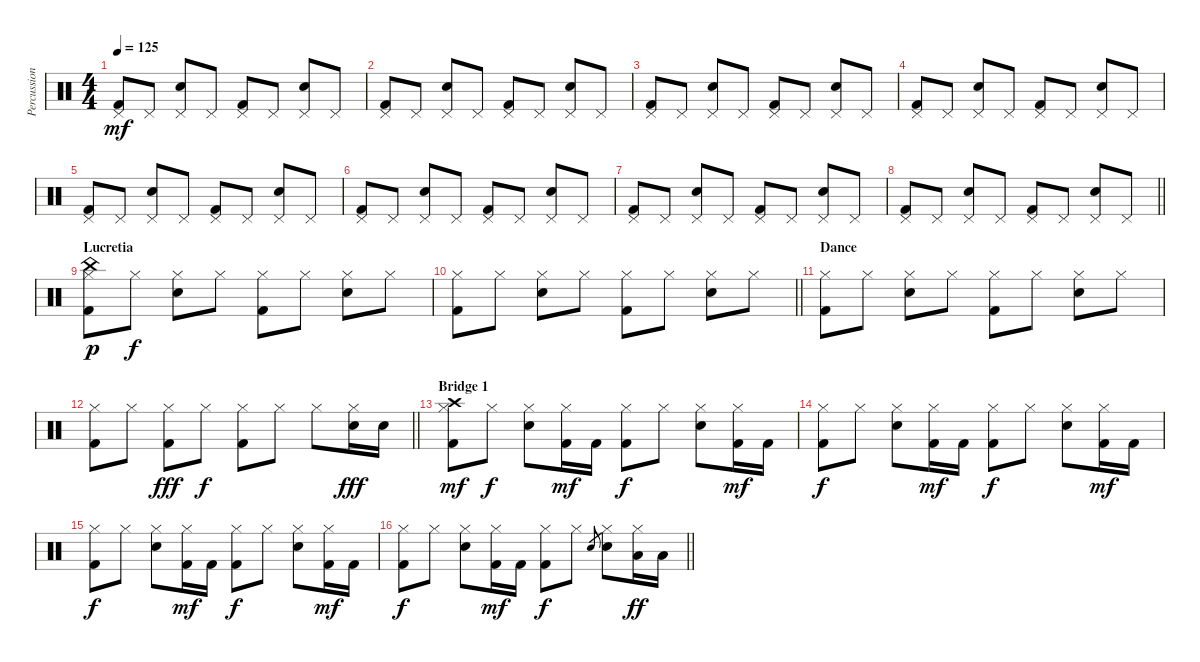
\track ("Percussion" "Percussion") {instrument percussion}
\staff {score}
\articulation defaults
\ts (4 4)
\tempo 125
\clef neutral
\ks c
("Pedal Hi-Hat (hit)" "Kick (hit) 2").8{dy mf} "Pedal Hi-Hat (hit)".8 ("Pedal Hi-Hat (hit)" "Electric Snare (hit)").8 "Pedal Hi-Hat (hit)".8 ("Pedal Hi-Hat (hit)" "Kick (hit) 2").8 "Pedal Hi-Hat (hit)".8 ("Pedal Hi-Hat (hit)" "Electric Snare (hit)").8 "Pedal Hi-Hat (hit)".8 |
("Pedal Hi-Hat (hit)" "Kick (hit) 2").8 "Pedal Hi-Hat (hit)".8 ("Pedal Hi-Hat (hit)" "Electric Snare (hit)").8 "Pedal Hi-Hat (hit)".8 ("Pedal Hi-Hat (hit)" "Kick (hit) 2").8 "Pedal Hi-Hat (hit)".8 ("Pedal Hi-Hat (hit)" "Electric Snare (hit)").8 "Pedal Hi-Hat (hit)".8 |
("Pedal Hi-Hat (hit)" "Kick (hit) 2").8 "Pedal Hi-Hat (hit)".8 ("Pedal Hi-Hat (hit)" "Electric Snare (hit)").8 "Pedal Hi-Hat (hit)".8 ("Pedal Hi-Hat (hit)" "Kick (hit) 2").8 "Pedal Hi-Hat (hit)".8 ("Pedal Hi-Hat (hit)" "Electric Snare (hit)").8 "Pedal Hi-Hat (hit)".8 |
("Pedal Hi-Hat (hit)" "Kick (hit) 2").8 "Pedal Hi-Hat (hit)".8 ("Pedal Hi-Hat (hit)" "Electric Snare (hit)").8 "Pedal Hi-Hat (hit)".8 ("Pedal Hi-Hat (hit)" "Kick (hit) 2").8 "Pedal Hi-Hat (hit)".8 ("Pedal Hi-Hat (hit)" "Electric Snare (hit)").8 "Pedal Hi-Hat (hit)".8 |
("Pedal Hi-Hat (hit)" "Kick (hit) 2").8 "Pedal Hi-Hat (hit)".8 ("Pedal Hi-Hat (hit)" "Electric Snare (hit)").8 "Pedal Hi-Hat (hit)".8 ("Pedal Hi-Hat (hit)" "Kick (hit) 2").8 "Pedal Hi-Hat (hit)".8 ("Pedal Hi-Hat (hit)" "Electric Snare (hit)").8 "Pedal Hi-Hat (hit)".8 |
("Pedal Hi-Hat (hit)" "Kick (hit) 2").8 "Pedal Hi-Hat (hit)".8 ("Pedal Hi-Hat (hit)" "Electric Snare (hit)").8 "Pedal Hi-Hat (hit)".8 ("Pedal Hi-Hat (hit)" "Kick (hit) 2").8 "Pedal Hi-Hat (hit)".8 ("Pedal Hi-Hat (hit)" "Electric Snare (hit)").8 "Pedal Hi-Hat (hit)".8 |
("Pedal Hi-Hat (hit)" "Kick (hit) 2").8 "Pedal Hi-Hat (hit)".8 ("Pedal Hi-Hat (hit)" "Electric Snare (hit)").8 "Pedal Hi-Hat (hit)".8 ("Pedal Hi-Hat (hit)" "Kick (hit) 2").8 "Pedal Hi-Hat (hit)".8 ("Pedal Hi-Hat (hit)" "Electric Snare (hit)").8 "Pedal Hi-Hat (hit)".8 |
\barLineRight lightlight
("Pedal Hi-Hat (hit)" "Kick (hit) 2").8 "Pedal Hi-Hat (hit)".8 ("Pedal Hi-Hat (hit)" "Electric Snare (hit)").8 "Pedal Hi-Hat (hit)".8 ("Pedal Hi-Hat (hit)" "Kick (hit) 2").8 "Pedal Hi-Hat (hit)".8 ("Pedal Hi-Hat (hit)" "Electric Snare (hit)").8 "Pedal Hi-Hat (hit)".8 |
\section ("" "Lucretia")
("Hi-Hat (closed)" "Kick (hit) 2" "China (hit)").8{dy p} "Hi-Hat (closed)".8{dy f} ("Hi-Hat (closed)" "Electric Snare (hit)").8 "Hi-Hat (closed)".8 ("Hi-Hat (closed)" "Kick (hit) 2").8 "Hi-Hat (closed)".8 ("Hi-Hat (closed)" "Electric Snare (hit)").8 "Hi-Hat (closed)".8 |
\barLineRight lightlight
("Hi-Hat (closed)" "Kick (hit) 2").8 "Hi-Hat (closed)".8 ("Hi-Hat (closed)" "Electric Snare (hit)").8 "Hi-Hat (closed)".8 ("Hi-Hat (closed)" "Kick (hit) 2").8 "Hi-Hat (closed)".8 ("Hi-Hat (closed)" "Electric Snare (hit)").8 "Hi-Hat (closed)".8 |
\section ("" "Dance")
("Hi-Hat (closed)" "Kick (hit) 2").8 "Hi-Hat (closed)".8 ("Hi-Hat (closed)" "Electric Snare (hit)").8 "Hi-Hat (closed)".8 ("Hi-Hat (closed)" "Kick (hit) 2").8 "Hi-Hat (closed)".8 ("Hi-Hat (closed)" "Electric Snare (hit)").8 "Hi-Hat (closed)".8 |
\barLineRight lightlight
("Hi-Hat (closed)" "Kick (hit) 2").8 "Hi-Hat (closed)".8 ("Hi-Hat (closed)" "Kick (hit) 2").8{dy fff} "Hi-Hat (closed)".8{dy f} ("Hi-Hat (closed)" "Kick (hit) 2").8 "Hi-Hat (closed)".8 "Hi-Hat (closed)".8 ("Hi-Hat (closed)" "Electric Snare (hit)").16{dy fff} "Electric Snare (hit)".16 |
\section ("" "Bridge 1")
("Hi-Hat (closed)" "Kick (hit) 2" "Crash high (hit)").8{dy mf} "Hi-Hat (closed)".8{dy f} ("Hi-Hat (closed)" "Electric Snare (hit)").8 ("Hi-Hat (closed)" "Kick (hit) 2").16{dy mf} "Kick (hit) 2".16 ("Hi-Hat (closed)" "Kick (hit) 2").8{dy f} "Hi-Hat (closed)".8 ("Hi-Hat (closed)" "Electric Snare (hit)").8 ("Hi-Hat (closed)" "Kick (hit) 2").16{dy mf} "Kick (hit) 2".16 |
("Hi-Hat (closed)" "Kick (hit) 2").8{dy f} "Hi-Hat (closed)".8 ("Hi-Hat (closed)" "Electric Snare (hit)").8 ("Hi-Hat (closed)" "Kick (hit) 2").16{dy mf} "Kick (hit) 2".16 ("Hi-Hat (closed)" "Kick (hit) 2").8{dy f} "Hi-Hat (closed)".8 ("Hi-Hat (closed)" "Electric Snare (hit)").8 ("Hi-Hat (closed)" "Kick (hit) 2").16{dy mf} "Kick (hit) 2".16 |
("Hi-Hat (closed)" "Kick (hit) 2").8{dy f} "Hi-Hat (closed)".8 ("Hi-Hat (closed)" "Electric Snare (hit)").8 ("Hi-Hat (closed)" "Kick (hit) 2").16{dy mf} "Kick (hit) 2".16 ("Hi-Hat (closed)" "Kick (hit) 2").8{dy f} "Hi-Hat (closed)".8 ("Hi-Hat (closed)" "Electric Snare (hit)").8 ("Hi-Hat (closed)" "Kick (hit) 2").16{dy mf} "Kick (hit) 2".16 |
\barLineRight lightlight
("Hi-Hat (closed)" "Kick (hit) 2").8{dy f} "Hi-Hat (closed)".8 ("Hi-Hat (closed)" "Electric Snare (hit)").8 ("Hi-Hat (closed)" "Kick (hit) 2").16{dy mf} "Kick (hit) 2".16 ("Hi-Hat (closed)" "Kick (hit) 2").8{dy f} "Hi-Hat (closed)".8 "Electric Snare (hit)".8{gr} ("Hi-Hat (closed)" "Electric Snare (hit)").8 ("Hi-Hat (closed)" "Low Tom (hit)").16{dy ff} "Low Tom (hit)".16
